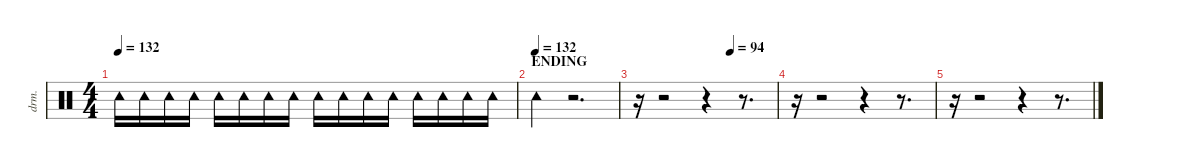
\defaultSystemsLayout 4
\hideDynamics
\bracketExtendMode nobrackets
\otherSystemsTrackNameOrientation horizontal
\track ("Percussion" "drm.") {instrument percussion}
\staff {score}
\articulation defaults
\ts (4 4)
\tempo 132
\clef neutral
\ks c "Tambourine (hit)".16{dy f beam Down} "Tambourine (hit)".16{beam Down} "Tambourine (hit)".16{beam Down} "Tambourine (hit)".16{beam Down} "Tambourine (hit)".16{dy fff beam Down} "Tambourine (hit)".16{dy f beam Down} "Tambourine (hit)".16{beam Down} "Tambourine (hit)".16{beam Down} "Tambourine (hit)".16{beam Down} "Tambourine (hit)".16{beam Down} "Tambourine (hit)".16{beam Down} "Tambourine (hit)".16{beam Down} "Tambourine (hit)".16{dy fff beam Down} "Tambourine (hit)".16{dy f beam Down} "Tambourine (hit)".16{beam Down} "Tambourine (hit)".16{beam Down}
|
\section ("" "ENDING")
\tempo (132)
"Tambourine (hit)".4{beam Down} r.2{d beam Down} |
\tempo (94 0.666667)
r.16{beam Down} r.2{beam Down} r.4{beam Down} r.8{d beam Down} |
r.16{beam Down} r.2{beam Down} r.4{beam Down} r.8{d beam Down} |
r.16{beam Down} r.2{beam Down} r.4{beam Down} r.8{d beam Down}
